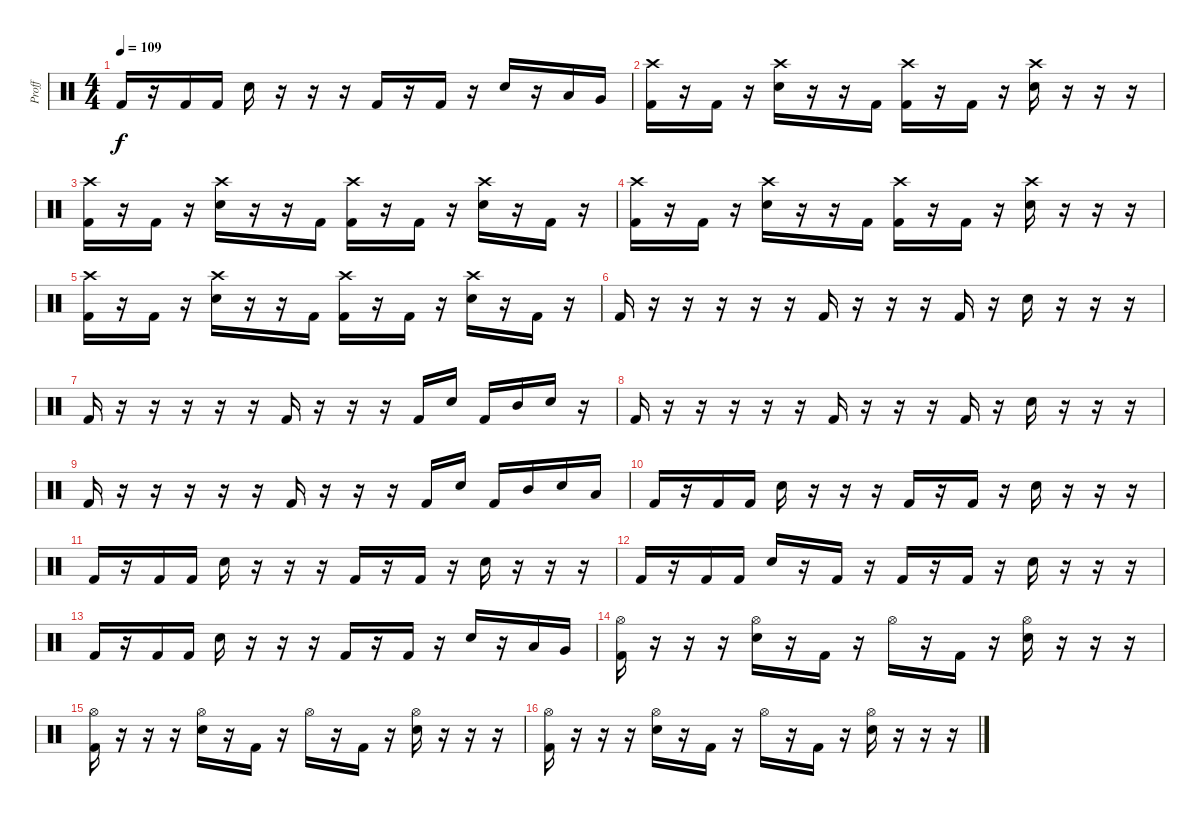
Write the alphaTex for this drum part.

\track ("Proff" "Proff") {instrument percussion}
\staff {score}
\articulation defaults
\ts (4 4)
\tempo 109
\clef neutral
\ks c "Kick (hit) 2".16{dy f}
r.16 "Kick (hit) 2".16 "Kick (hit) 2".16 "Electric Snare (hit)".16 r.16 r.16 r.16 "Kick (hit) 2".16 r.16 "Kick (hit) 2".16 r.16 "Electric Snare (hit)".16 r.16 "Low Tom (hit)".16 "Very Low Tom (hit)".16 |
("Crash high (hit)" "Kick (hit) 2").16 r.16 "Kick (hit) 2".16 r.16 ("Crash high (hit)" "Electric Snare (hit)").16 r.16 r.16 "Kick (hit) 2".16 ("Crash high (hit)" "Kick (hit) 2").16 r.16 "Kick (hit) 2".16 r.16 ("Crash high (hit)" "Electric Snare (hit)").16 r.16 r.16 r.16 |
("Crash high (hit)" "Kick (hit) 2").16 r.16 "Kick (hit) 2".16 r.16 ("Crash high (hit)" "Electric Snare (hit)").16 r.16 r.16 "Kick (hit) 2".16 ("Crash high (hit)" "Kick (hit) 2").16 r.16 "Kick (hit) 2".16 r.16 ("Crash high (hit)" "Electric Snare (hit)").16 r.16 "Kick (hit) 2".16 r.16 |
("Crash high (hit)" "Kick (hit) 2").16 r.16 "Kick (hit) 2".16 r.16 ("Crash high (hit)" "Electric Snare (hit)").16 r.16 r.16 "Kick (hit) 2".16 ("Crash high (hit)" "Kick (hit) 2").16 r.16 "Kick (hit) 2".16 r.16 ("Crash high (hit)" "Electric Snare (hit)").16 r.16 r.16 r.16 |
("Crash high (hit)" "Kick (hit) 2").16 r.16 "Kick (hit) 2".16 r.16 ("Crash high (hit)" "Electric Snare (hit)").16 r.16 r.16 "Kick (hit) 2".16 ("Crash high (hit)" "Kick (hit) 2").16 r.16 "Kick (hit) 2".16 r.16 ("Crash high (hit)" "Electric Snare (hit)").16 r.16 "Kick (hit) 2".16 r.16 |
"Kick (hit) 2".16 r.16 r.16 r.16 r.16 r.16 "Kick (hit) 2".16 r.16 r.16 r.16 "Kick (hit) 2".16 r.16 "Electric Snare (hit)".16 r.16 r.16 r.16 |
"Kick (hit) 2".16 r.16 r.16 r.16 r.16 r.16 "Kick (hit) 2".16 r.16 r.16 r.16 "Kick (hit) 2".16 "Electric Snare (hit)".16 "Kick (hit) 2".16 "Mid Tom (hit)".16 "Electric Snare (hit)".16 r.16 |
"Kick (hit) 2".16 r.16 r.16 r.16 r.16 r.16 "Kick (hit) 2".16 r.16 r.16 r.16 "Kick (hit) 2".16 r.16 "Electric Snare (hit)".16 r.16 r.16 r.16 |
"Kick (hit) 2".16 r.16 r.16 r.16 r.16 r.16 "Kick (hit) 2".16 r.16 r.16 r.16 "Kick (hit) 2".16 "Electric Snare (hit)".16 "Kick (hit) 2".16 "Mid Tom (hit)".16 "Electric Snare (hit)".16 "Low Tom (hit)".16 |
"Kick (hit) 2".16 r.16 "Kick (hit) 2".16 "Kick (hit) 2".16 "Electric Snare (hit)".16 r.16 r.16 r.16 "Kick (hit) 2".16 r.16 "Kick (hit) 2".16 r.16 "Electric Snare (hit)".16 r.16 r.16 r.16 |
"Kick (hit) 2".16 r.16 "Kick (hit) 2".16 "Kick (hit) 2".16 "Electric Snare (hit)".16 r.16 r.16 r.16 "Kick (hit) 2".16 r.16 "Kick (hit) 2".16 r.16 "Electric Snare (hit)".16 r.16 r.16 r.16 |
"Kick (hit) 2".16 r.16 "Kick (hit) 2".16 "Kick (hit) 2".16 "Electric Snare (hit)".16 r.16 "Kick (hit) 2".16 r.16 "Kick (hit) 2".16 r.16 "Kick (hit) 2".16 r.16 "Electric Snare (hit)".16 r.16 r.16 r.16 |
"Kick (hit) 2".16 r.16 "Kick (hit) 2".16 "Kick (hit) 2".16 "Electric Snare (hit)".16 r.16 r.16 r.16 "Kick (hit) 2".16 r.16 "Kick (hit) 2".16 r.16 "Electric Snare (hit)".16 r.16 "Low Tom (hit)".16 "Very Low Tom (hit)".16 |
("Hi-Hat (open)" "Kick (hit) 2").16 r.16 r.16 r.16 ("Hi-Hat (open)" "Electric Snare (hit)").16 r.16 "Kick (hit) 2".16 r.16 "Hi-Hat (open)".16 r.16 "Kick (hit) 2".16 r.16 ("Hi-Hat (open)" "Electric Snare (hit)").16 r.16 r.16 r.16 |
("Hi-Hat (open)" "Kick (hit) 2").16 r.16 r.16 r.16 ("Hi-Hat (open)" "Electric Snare (hit)").16 r.16 "Kick (hit) 2".16 r.16 "Hi-Hat (open)".16 r.16 "Kick (hit) 2".16 r.16 ("Hi-Hat (open)" "Electric Snare (hit)").16 r.16 r.16 r.16 |
("Hi-Hat (open)" "Kick (hit) 2").16 r.16 r.16 r.16 ("Hi-Hat (open)" "Electric Snare (hit)").16 r.16 "Kick (hit) 2".16 r.16 "Hi-Hat (open)".16 r.16 "Kick (hit) 2".16 r.16 ("Hi-Hat (open)" "Electric Snare (hit)").16 r.16 r.16 r.16
